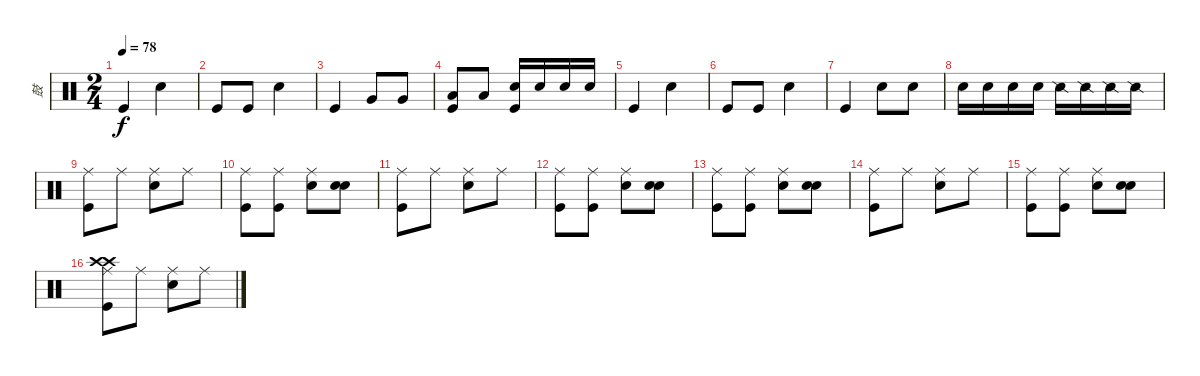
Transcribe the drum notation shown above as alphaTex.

\track ("鼓" "鼓") {instrument percussion}
\staff {score}
\articulation defaults
\ts (2 4)
\tempo 78
\clef neutral
\ks c "Kick (hit)".4{dy f} "Snare (hit) 2".4
|
"Kick (hit)".8 "Kick (hit)".8 "Snare (hit) 2".4 |
"Kick (hit)".4 "Very Low Tom (hit)".8 "Very Low Tom (hit)".8 |
("Low Floor Tom (hit)" "Kick (hit)").8 "Low Floor Tom (hit)".8 ("Metronome (bell)" "Kick (hit)").16 "Metronome (bell)".16 "Metronome (bell)".16 "Metronome (bell)".16 |
"Kick (hit)".4 "Snare (hit) 2".4 |
"Kick (hit)".8 "Kick (hit)".8 "Snare (hit) 2".4 |
"Kick (hit)".4 "Electric Snare (hit)".8 "Electric Snare (hit)".8 |
"Snare (hit) 2".16 "Snare (hit) 2".16 "Snare (hit) 2".16 "Snare (hit) 2".16 "Snare (side stick) 2".16 "Snare (side stick) 2".16 "Snare (side stick) 2".16 "Snare (side stick) 2".16 |
("Ride (middle)" "Kick (hit)").8 "Ride (middle)".8 ("Ride (middle)" "Metronome (bell)").8 "Ride (middle)".8 |
("Ride (middle)" "Kick (hit)").8 ("Ride (middle)" "Kick (hit)").8 ("Ride (middle)" "Metronome (bell)").8 ("Snare (hit)" "Metronome (bell)").8 |
("Ride (middle)" "Kick (hit)").8 "Ride (middle)".8 ("Ride (middle)" "Metronome (bell)").8 "Ride (middle)".8 |
("Ride (middle)" "Kick (hit)").8 ("Ride (middle)" "Kick (hit)").8 ("Ride (middle)" "Metronome (bell)").8 ("Snare (hit)" "Metronome (bell)").8 |
("Ride (middle)" "Kick (hit)").8 ("Ride (middle)" "Kick (hit)").8 ("Ride (middle)" "Metronome (bell)").8 ("Snare (hit)" "Metronome (bell)").8 |
("Ride (middle)" "Kick (hit)").8 "Ride (middle)".8 ("Ride (middle)" "Metronome (bell)").8 "Ride (middle)".8 |
("Ride (middle)" "Kick (hit)").8 ("Ride (middle)" "Kick (hit)").8 ("Ride (middle)" "Metronome (bell)").8 ("Snare (hit)" "Metronome (bell)").8 |
("Ride (middle)" "Kick (hit)" "Crash high (hit)" "Crash high (hit)").8 "Ride (middle)".8 ("Ride (middle)" "Metronome (bell)").8 "Ride (middle)".8
